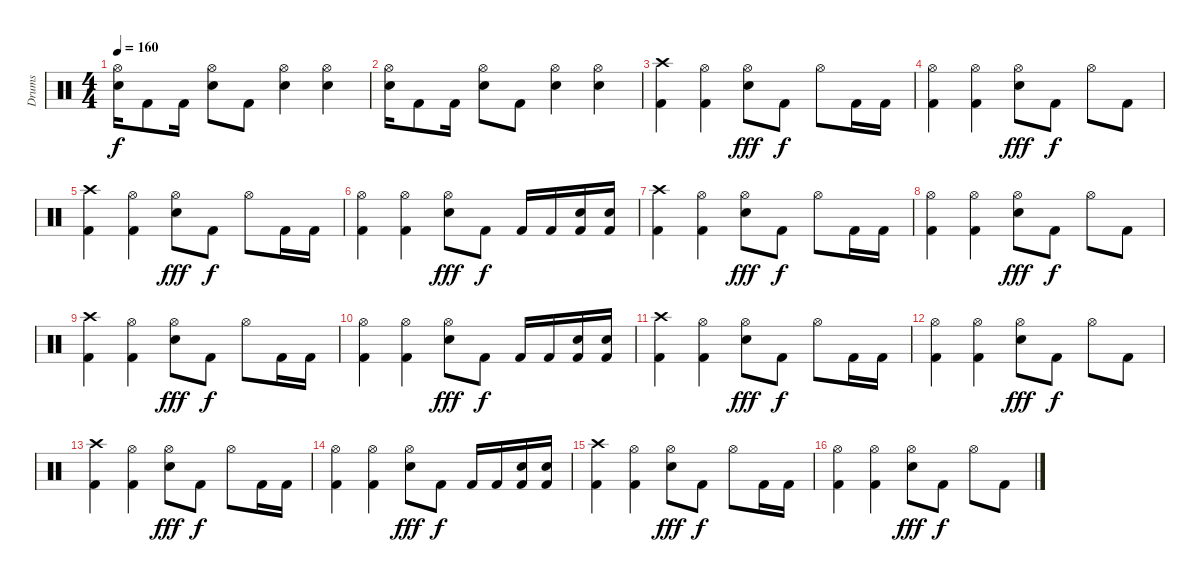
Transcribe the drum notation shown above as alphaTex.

\track ("Drums" "Drums") {instrument percussion}
\staff {score}
\articulation defaults
\ts (4 4)
\tempo 160
\clef neutral
\ks c
("Hi-Hat (open)" "Electric Snare (hit)").16{dy f} "Kick (hit) 2".8 "Kick (hit) 2".16 ("Hi-Hat (open)" "Electric Snare (hit)").8 "Kick (hit) 2".8 ("Hi-Hat (open)" "Electric Snare (hit)").4 ("Hi-Hat (open)" "Electric Snare (hit)").4 |
("Hi-Hat (open)" "Electric Snare (hit)").16 "Kick (hit) 2".8 "Kick (hit) 2".16 ("Hi-Hat (open)" "Electric Snare (hit)").8 "Kick (hit) 2".8 ("Hi-Hat (open)" "Electric Snare (hit)").4 ("Hi-Hat (open)" "Electric Snare (hit)").4 |
("Crash high (hit)" "Kick (hit) 2").4 ("Hi-Hat (open)" "Kick (hit) 2").4 ("Hi-Hat (open)" "Snare (hit) 2").8{dy fff} "Kick (hit) 2".8{dy f} "Hi-Hat (open)".8 "Kick (hit) 2".16 "Kick (hit) 2".16 |
("Hi-Hat (open)" "Kick (hit) 2").4 ("Hi-Hat (open)" "Kick (hit) 2").4 ("Hi-Hat (open)" "Snare (hit) 2").8{dy fff} "Kick (hit) 2".8{dy f} "Hi-Hat (open)".8 "Kick (hit) 2".8 |
("Crash high (hit)" "Kick (hit) 2").4 ("Hi-Hat (open)" "Kick (hit) 2").4 ("Hi-Hat (open)" "Snare (hit) 2").8{dy fff} "Kick (hit) 2".8{dy f} "Hi-Hat (open)".8 "Kick (hit) 2".16 "Kick (hit) 2".16 |
("Hi-Hat (open)" "Kick (hit) 2").4 ("Hi-Hat (open)" "Kick (hit) 2").4 ("Hi-Hat (open)" "Snare (hit) 2").8{dy fff} "Kick (hit) 2".8{dy f} "Kick (hit) 2".16 "Kick (hit) 2".16 ("Snare (hit) 2" "Kick (hit) 2").16 ("Snare (hit) 2" "Kick (hit) 2").16 |
("Crash high (hit)" "Kick (hit) 2").4 ("Hi-Hat (open)" "Kick (hit) 2").4 ("Hi-Hat (open)" "Snare (hit) 2").8{dy fff} "Kick (hit) 2".8{dy f} "Hi-Hat (open)".8 "Kick (hit) 2".16 "Kick (hit) 2".16 |
("Hi-Hat (open)" "Kick (hit) 2").4 ("Hi-Hat (open)" "Kick (hit) 2").4 ("Hi-Hat (open)" "Snare (hit) 2").8{dy fff} "Kick (hit) 2".8{dy f} "Hi-Hat (open)".8 "Kick (hit) 2".8 |
("Crash high (hit)" "Kick (hit) 2").4 ("Hi-Hat (open)" "Kick (hit) 2").4 ("Hi-Hat (open)" "Snare (hit) 2").8{dy fff} "Kick (hit) 2".8{dy f} "Hi-Hat (open)".8 "Kick (hit) 2".16 "Kick (hit) 2".16 |
("Hi-Hat (open)" "Kick (hit) 2").4 ("Hi-Hat (open)" "Kick (hit) 2").4 ("Hi-Hat (open)" "Snare (hit) 2").8{dy fff} "Kick (hit) 2".8{dy f} "Kick (hit) 2".16 "Kick (hit) 2".16 ("Snare (hit) 2" "Kick (hit) 2").16 ("Snare (hit) 2" "Kick (hit) 2").16 |
("Crash high (hit)" "Kick (hit) 2").4 ("Hi-Hat (open)" "Kick (hit) 2").4 ("Hi-Hat (open)" "Snare (hit) 2").8{dy fff} "Kick (hit) 2".8{dy f} "Hi-Hat (open)".8 "Kick (hit) 2".16 "Kick (hit) 2".16 |
("Hi-Hat (open)" "Kick (hit) 2").4 ("Hi-Hat (open)" "Kick (hit) 2").4 ("Hi-Hat (open)" "Snare (hit) 2").8{dy fff} "Kick (hit) 2".8{dy f} "Hi-Hat (open)".8 "Kick (hit) 2".8 |
("Crash high (hit)" "Kick (hit) 2").4 ("Hi-Hat (open)" "Kick (hit) 2").4 ("Hi-Hat (open)" "Snare (hit) 2").8{dy fff} "Kick (hit) 2".8{dy f} "Hi-Hat (open)".8 "Kick (hit) 2".16 "Kick (hit) 2".16 |
("Hi-Hat (open)" "Kick (hit) 2").4 ("Hi-Hat (open)" "Kick (hit) 2").4 ("Hi-Hat (open)" "Snare (hit) 2").8{dy fff} "Kick (hit) 2".8{dy f} "Kick (hit) 2".16 "Kick (hit) 2".16 ("Snare (hit) 2" "Kick (hit) 2").16 ("Snare (hit) 2" "Kick (hit) 2").16 |
("Crash high (hit)" "Kick (hit) 2").4 ("Hi-Hat (open)" "Kick (hit) 2").4 ("Hi-Hat (open)" "Snare (hit) 2").8{dy fff} "Kick (hit) 2".8{dy f} "Hi-Hat (open)".8 "Kick (hit) 2".16 "Kick (hit) 2".16 |
("Hi-Hat (open)" "Kick (hit) 2").4 ("Hi-Hat (open)" "Kick (hit) 2").4 ("Hi-Hat (open)" "Snare (hit) 2").8{dy fff} "Kick (hit) 2".8{dy f} "Hi-Hat (open)".8 "Kick (hit) 2".8
